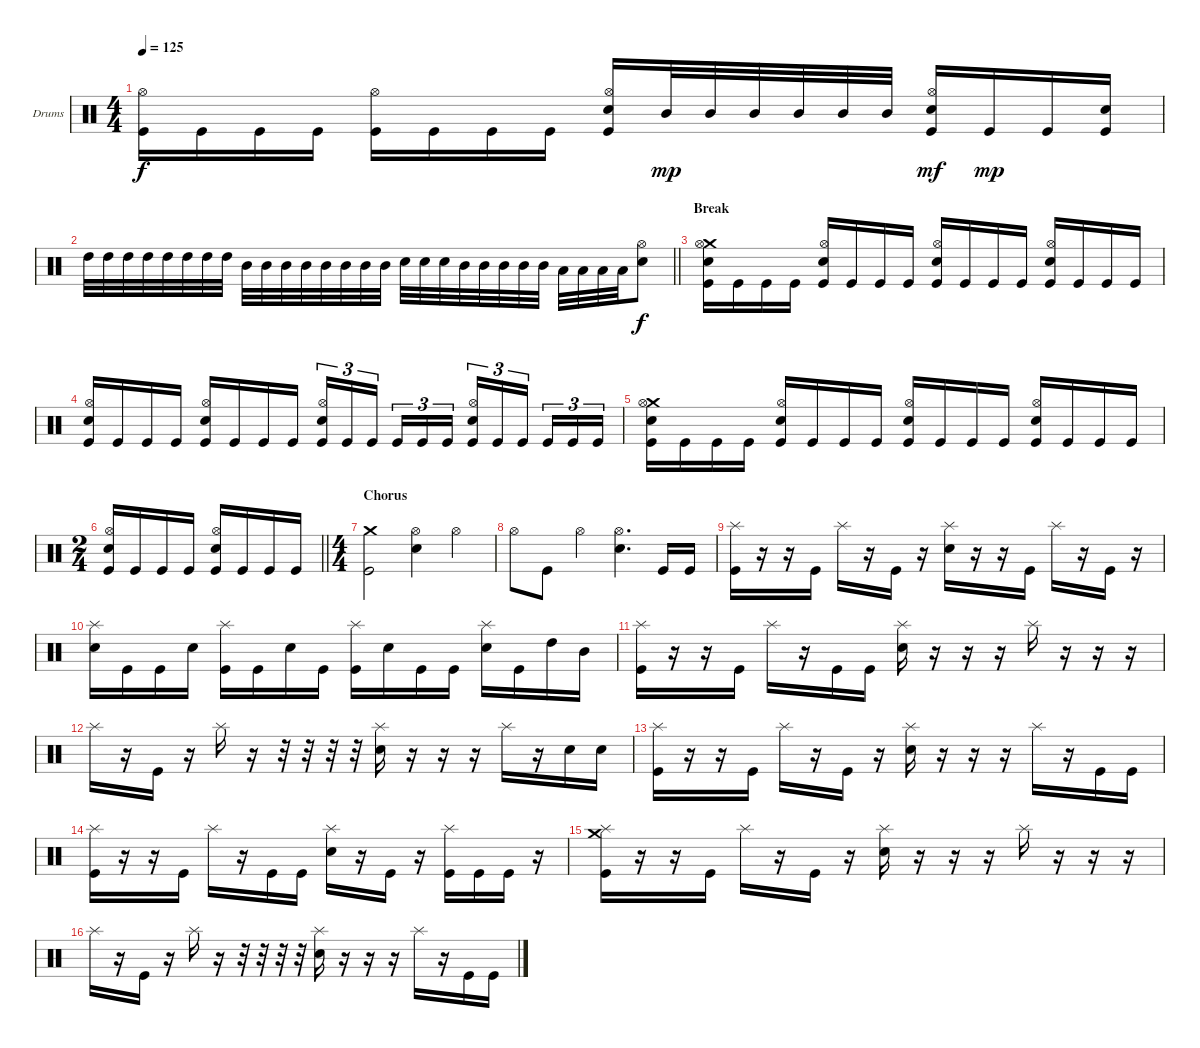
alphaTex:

\bracketExtendMode groupsimilarinstruments
\firstSystemTrackNameOrientation horizontal
\otherSystemsTrackNameOrientation horizontal
\track ("Drumkit" "Drums") {instrument percussion}
\staff {score}
\articulation defaults
\ts (4 4)
\tempo 125
\clef neutral
\ks c
("Kick (hit)" "Hi-Hat (open)").16{dy f} "Kick (hit)".16 "Kick (hit)".16 "Kick (hit)".16 ("Kick (hit)" "Hi-Hat (open)").16 "Kick (hit)".16 "Kick (hit)".16 "Kick (hit)".16 ("Snare (hit) 2" "Kick (hit)" "Hi-Hat (open)").16 "Mid Tom (hit)".32{dy mp} "Mid Tom (hit)".32 "Mid Tom (hit)".32 "Mid Tom (hit)".32 "Mid Tom (hit)".32 "Mid Tom (hit)".32 ("Snare (hit) 2" "Kick (hit)" "Hi-Hat (open)").16{dy mf} "Kick (hit)".16{dy mp} "Kick (hit)".16 ("Snare (hit) 2" "Kick (hit)").16 |
\barLineRight lightlight "High Tom (hit)".32 "High Tom (hit)".32 "High Tom (hit)".32 "High Tom (hit)".32 "High Tom (hit)".32 "High Tom (hit)".32 "High Tom (hit)".32 "High Tom (hit)".32 "Mid Tom (hit)".32 "Mid Tom (hit)".32 "Mid Tom (hit)".32 "Mid Tom (hit)".32 "Mid Tom (hit)".32 "Mid Tom (hit)".32 "Mid Tom (hit)".32 "Mid Tom (hit)".32 "Snare (hit) 2".32 "Snare (hit) 2".32 "Snare (hit) 2".32 "Mid Tom (hit)".32 "Mid Tom (hit)".32 "Mid Tom (hit)".32 "Mid Tom (hit)".32 "Mid Tom (hit)".32 "Low Tom (hit)".32 "Low Tom (hit)".32 "Low Tom (hit)".32 "Low Tom (hit)".32
("Snare (hit) 2" "Hi-Hat (open)").8{dy f} |
\section ("" "Break")
("Crash medium (hit)" "Snare (hit) 2" "Kick (hit)" "Hi-Hat (open)").16 "Kick (hit)".16 "Kick (hit)".16 "Kick (hit)".16 ("Snare (hit) 2" "Kick (hit)" "Hi-Hat (open)").16 "Kick (hit)".16 "Kick (hit)".16 "Kick (hit)".16 ("Snare (hit) 2" "Kick (hit)" "Hi-Hat (open)").16 "Kick (hit)".16 "Kick (hit)".16 "Kick (hit)".16 ("Snare (hit) 2" "Kick (hit)" "Hi-Hat (open)").16 "Kick (hit)".16 "Kick (hit)".16 "Kick (hit)".16 |
("Snare (hit) 2" "Kick (hit)" "Hi-Hat (open)").16 "Kick (hit)".16 "Kick (hit)".16 "Kick (hit)".16 ("Snare (hit) 2" "Kick (hit)" "Hi-Hat (open)").16 "Kick (hit)".16 "Kick (hit)".16 "Kick (hit)".16 ("Snare (hit) 2" "Kick (hit)" "Hi-Hat (open)").16{tu (3 2)} "Kick (hit)".16{tu (3 2)} "Kick (hit)".16{tu (3 2)} "Kick (hit)".16{tu (3 2)} "Kick (hit)".16{tu (3 2)} "Kick (hit)".16{tu (3 2)} ("Snare (hit) 2" "Kick (hit)" "Hi-Hat (open)").16{tu (3 2)} "Kick (hit)".16{tu (3 2)} "Kick (hit)".16{tu (3 2)} "Kick (hit)".16{tu (3 2)} "Kick (hit)".16{tu (3 2)} "Kick (hit)".16{tu (3 2)} |
("Crash medium (hit)" "Snare (hit) 2" "Kick (hit)" "Hi-Hat (open)").16 "Kick (hit)".16 "Kick (hit)".16 "Kick (hit)".16 ("Snare (hit) 2" "Kick (hit)" "Hi-Hat (open)").16 "Kick (hit)".16 "Kick (hit)".16 "Kick (hit)".16 ("Snare (hit) 2" "Kick (hit)" "Hi-Hat (open)").16 "Kick (hit)".16 "Kick (hit)".16 "Kick (hit)".16 ("Snare (hit) 2" "Kick (hit)" "Hi-Hat (open)").16 "Kick (hit)".16 "Kick (hit)".16 "Kick (hit)".16 |
\ts (2 4)
\beaming (8 2 2)
\barLineRight lightlight
("Snare (hit) 2" "Kick (hit)" "Hi-Hat (open)").16 "Kick (hit)".16 "Kick (hit)".16 "Kick (hit)".16 ("Snare (hit) 2" "Kick (hit)" "Hi-Hat (open)").16 "Kick (hit)".16 "Kick (hit)".16 "Kick (hit)".16 |
\ts (4 4)
\beaming (8 2 2 2 2)
\section ("" "Chorus")
("Crash medium (hit)" "Kick (hit)").2 ("Snare (hit) 2" "Hi-Hat (open)").4 "Hi-Hat (open)".4 |
"Hi-Hat (open)".8 "Kick (hit)".8 "Hi-Hat (open)".4 ("Snare (hit) 2" "Hi-Hat (open)").4{d} "Kick (hit)".16 "Kick (hit)".16 |
("Kick (hit)" "Splash (hit)").16 r.16 r.16 "Kick (hit)".16 "Splash (hit)".16 r.16 "Kick (hit)".16 r.16 ("Snare (hit) 2" "Splash (hit)").16 r.16 r.16 "Kick (hit)".16 "Splash (hit)".16 r.16 "Kick (hit)".16 r.16 |
("Snare (hit) 2" "Splash (hit)").16 "Kick (hit)".16 "Kick (hit)".16 "Snare (hit) 2".16 ("Kick (hit)" "Splash (hit)").16 "Kick (hit)".16 "Snare (hit) 2".16 "Kick (hit)".16 ("Kick (hit)" "Splash (hit)").16 "Snare (hit) 2".16 "Kick (hit)".16 "Kick (hit)".16 ("Snare (hit) 2" "Splash (hit)").16 "Kick (hit)".16 "High Tom (hit)".16 "Mid Tom (hit)".16 |
("Kick (hit)" "Splash (hit)").16 r.16 r.16 "Kick (hit)".16 "Splash (hit)".16 r.16 "Kick (hit)".16 "Kick (hit)".16 ("Snare (hit) 2" "Splash (hit)").16 r.16 r.16 r.16 "Splash (hit)".16 r.16 r.16 r.16 |
"Splash (hit)".16 r.16 "Kick (hit)".16 r.16 "Splash (hit)".16 r.16 r.32 r.32 r.32 r.32 ("Snare (hit) 2" "Splash (hit)").16 r.16 r.16 r.16 "Splash (hit)".16 r.16 "Snare (hit) 2".16 "Snare (hit) 2".16 |
("Kick (hit)" "Splash (hit)").16 r.16 r.16 "Kick (hit)".16 "Splash (hit)".16 r.16 "Kick (hit)".16 r.16 ("Snare (hit) 2" "Splash (hit)").16 r.16 r.16 r.16 "Splash (hit)".16 r.16 "Kick (hit)".16 "Kick (hit)".16 |
("Kick (hit)" "Splash (hit)").16 r.16 r.16 "Kick (hit)".16 "Splash (hit)".16 r.16 "Kick (hit)".16 "Kick (hit)".16 ("Snare (hit) 2" "Splash (hit)").16 r.16 "Kick (hit)".16 r.16 ("Kick (hit)" "Splash (hit)").16 "Kick (hit)".16 "Kick (hit)".16 r.16 |
("Crash medium (hit)" "Kick (hit)" "Splash (hit)").16 r.16 r.16 "Kick (hit)".16 "Splash (hit)".16 r.16 "Kick (hit)".16 r.16 ("Snare (hit) 2" "Splash (hit)").16 r.16 r.16 r.16 "Splash (hit)".16 r.16 r.16 r.16 |
"Splash (hit)".16 r.16 "Kick (hit)".16 r.16 "Splash (hit)".16 r.16 r.32 r.32 r.32 r.32 ("Snare (hit) 2" "Splash (hit)").16 r.16 r.16 r.16 "Splash (hit)".16 r.16 "Kick (hit)".16 "Kick (hit)".16
